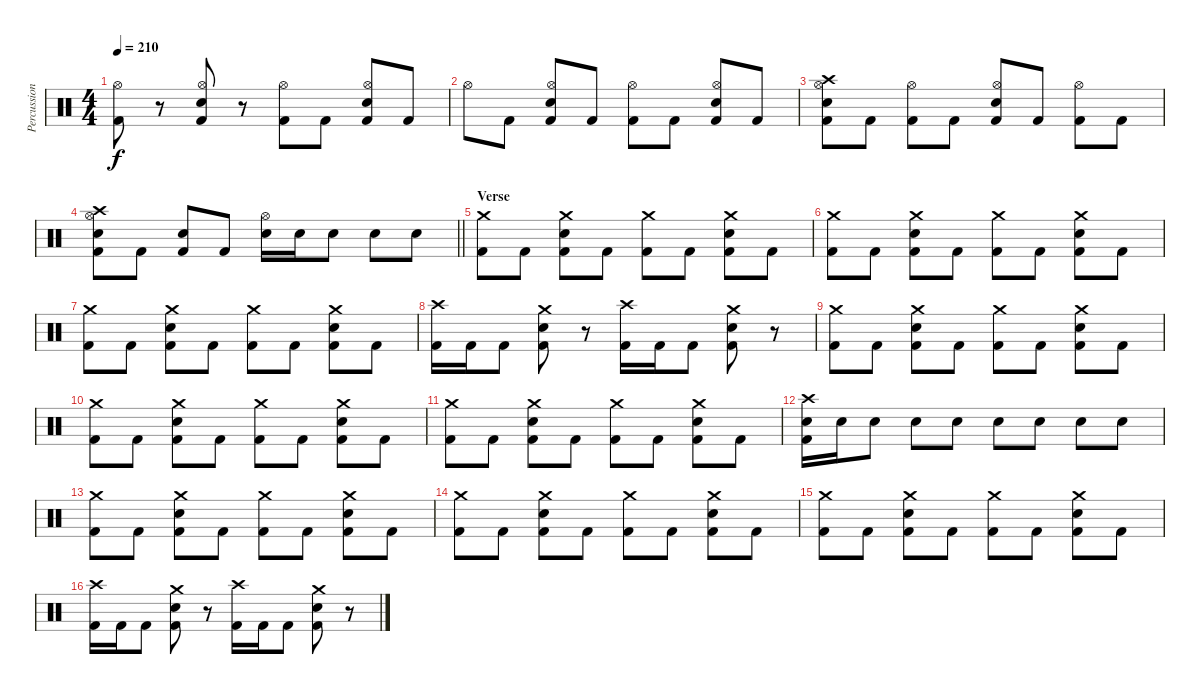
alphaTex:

\track ("Percussion" "Percussion") {instrument percussion}
\staff {score}
\articulation defaults
\ts (4 4)
\tempo 210
\clef neutral
\ks c
("Kick (hit) 2" "Hi-Hat (open)").8{dy f} r.8 ("Kick (hit) 2" "Electric Snare (hit)" "Hi-Hat (open)").8 r.8 ("Kick (hit) 2" "Hi-Hat (open)").8 "Kick (hit) 2".8 ("Kick (hit) 2" "Electric Snare (hit)" "Hi-Hat (open)").8 "Kick (hit) 2".8 |
"Hi-Hat (open)".8 "Kick (hit) 2".8 ("Kick (hit) 2" "Electric Snare (hit)" "Hi-Hat (open)").8 "Kick (hit) 2".8 ("Kick (hit) 2" "Hi-Hat (open)").8 "Kick (hit) 2".8 ("Kick (hit) 2" "Electric Snare (hit)" "Hi-Hat (open)").8 "Kick (hit) 2".8 |
("Kick (hit) 2" "Electric Snare (hit)" "Hi-Hat (open)" "Crash high (hit)").8 "Kick (hit) 2".8 ("Kick (hit) 2" "Hi-Hat (open)").8 "Kick (hit) 2".8 ("Kick (hit) 2" "Electric Snare (hit)" "Hi-Hat (open)").8 "Kick (hit) 2".8 ("Kick (hit) 2" "Hi-Hat (open)").8 "Kick (hit) 2".8 |
\barLineRight lightlight
("Kick (hit) 2" "Electric Snare (hit)" "Hi-Hat (open)" "Crash high (hit)").8 "Kick (hit) 2".8 ("Kick (hit) 2" "Electric Snare (hit)").8 "Kick (hit) 2".8 ("Electric Snare (hit)" "Hi-Hat (open)").16 "Electric Snare (hit)".16 "Electric Snare (hit)".8 "Electric Snare (hit)".8 "Electric Snare (hit)".8 |
\section ("" "Verse")
("Kick (hit) 2" "Crash medium (hit)").8 "Kick (hit) 2".8 ("Kick (hit) 2" "Electric Snare (hit)" "Crash medium (hit)").8 "Kick (hit) 2".8 ("Kick (hit) 2" "Crash medium (hit)").8 "Kick (hit) 2".8 ("Kick (hit) 2" "Electric Snare (hit)" "Crash medium (hit)").8 "Kick (hit) 2".8 |
("Kick (hit) 2" "Crash medium (hit)").8 "Kick (hit) 2".8 ("Kick (hit) 2" "Electric Snare (hit)" "Crash medium (hit)").8 "Kick (hit) 2".8 ("Kick (hit) 2" "Crash medium (hit)").8 "Kick (hit) 2".8 ("Kick (hit) 2" "Electric Snare (hit)" "Crash medium (hit)").8 "Kick (hit) 2".8 |
("Kick (hit) 2" "Crash medium (hit)").8 "Kick (hit) 2".8 ("Kick (hit) 2" "Electric Snare (hit)" "Crash medium (hit)").8 "Kick (hit) 2".8 ("Kick (hit) 2" "Crash medium (hit)").8 "Kick (hit) 2".8 ("Kick (hit) 2" "Electric Snare (hit)" "Crash medium (hit)").8 "Kick (hit) 2".8 |
("Kick (hit) 2" "Crash high (hit)").16 "Kick (hit) 2".16 "Kick (hit) 2".8 ("Kick (hit) 2" "Electric Snare (hit)" "Crash medium (hit)").8 r.8 ("Kick (hit) 2" "Crash high (hit)").16 "Kick (hit) 2".16 "Kick (hit) 2".8 ("Kick (hit) 2" "Electric Snare (hit)" "Crash medium (hit)").8 r.8 |
("Kick (hit) 2" "Crash medium (hit)").8 "Kick (hit) 2".8 ("Kick (hit) 2" "Electric Snare (hit)" "Crash medium (hit)").8 "Kick (hit) 2".8 ("Kick (hit) 2" "Crash medium (hit)").8 "Kick (hit) 2".8 ("Kick (hit) 2" "Electric Snare (hit)" "Crash medium (hit)").8 "Kick (hit) 2".8 |
("Kick (hit) 2" "Crash medium (hit)").8 "Kick (hit) 2".8 ("Kick (hit) 2" "Electric Snare (hit)" "Crash medium (hit)").8 "Kick (hit) 2".8 ("Kick (hit) 2" "Crash medium (hit)").8 "Kick (hit) 2".8 ("Kick (hit) 2" "Electric Snare (hit)" "Crash medium (hit)").8 "Kick (hit) 2".8 |
("Kick (hit) 2" "Crash medium (hit)").8 "Kick (hit) 2".8 ("Kick (hit) 2" "Electric Snare (hit)" "Crash medium (hit)").8 "Kick (hit) 2".8 ("Kick (hit) 2" "Crash medium (hit)").8 "Kick (hit) 2".8 ("Kick (hit) 2" "Electric Snare (hit)" "Crash medium (hit)").8 "Kick (hit) 2".8 |
("Kick (hit) 2" "Electric Snare (hit)" "Crash high (hit)").16 "Electric Snare (hit)".16 "Electric Snare (hit)".8 "Electric Snare (hit)".8 "Electric Snare (hit)".8 "Electric Snare (hit)".8 "Electric Snare (hit)".8 "Electric Snare (hit)".8 "Electric Snare (hit)".8 |
("Kick (hit) 2" "Crash medium (hit)").8 "Kick (hit) 2".8 ("Kick (hit) 2" "Electric Snare (hit)" "Crash medium (hit)").8 "Kick (hit) 2".8 ("Kick (hit) 2" "Crash medium (hit)").8 "Kick (hit) 2".8 ("Kick (hit) 2" "Electric Snare (hit)" "Crash medium (hit)").8 "Kick (hit) 2".8 |
("Kick (hit) 2" "Crash medium (hit)").8 "Kick (hit) 2".8 ("Kick (hit) 2" "Electric Snare (hit)" "Crash medium (hit)").8 "Kick (hit) 2".8 ("Kick (hit) 2" "Crash medium (hit)").8 "Kick (hit) 2".8 ("Kick (hit) 2" "Electric Snare (hit)" "Crash medium (hit)").8 "Kick (hit) 2".8 |
("Kick (hit) 2" "Crash medium (hit)").8 "Kick (hit) 2".8 ("Kick (hit) 2" "Electric Snare (hit)" "Crash medium (hit)").8 "Kick (hit) 2".8 ("Kick (hit) 2" "Crash medium (hit)").8 "Kick (hit) 2".8 ("Kick (hit) 2" "Electric Snare (hit)" "Crash medium (hit)").8 "Kick (hit) 2".8 |
("Kick (hit) 2" "Crash high (hit)").16 "Kick (hit) 2".16 "Kick (hit) 2".8 ("Kick (hit) 2" "Electric Snare (hit)" "Crash medium (hit)").8 r.8 ("Kick (hit) 2" "Crash high (hit)").16 "Kick (hit) 2".16 "Kick (hit) 2".8 ("Kick (hit) 2" "Electric Snare (hit)" "Crash medium (hit)").8 r.8
